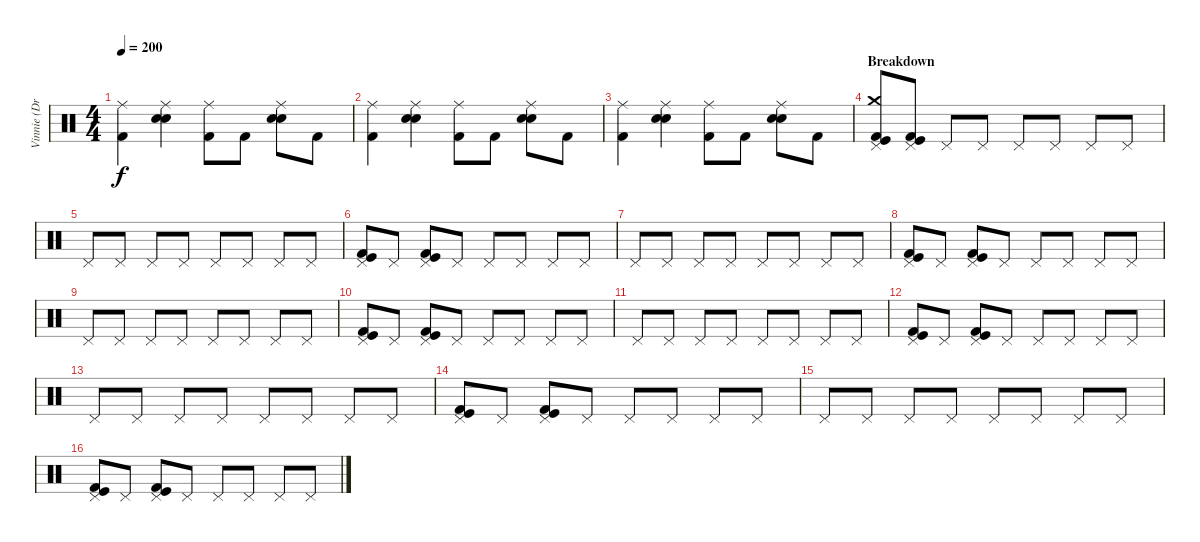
\track ("Vinnie (Drums)" "Vinnie (Dr") {instrument percussion}
\staff {score}
\articulation defaults
\ts (4 4)
\tempo 200
\clef neutral
\ks c
("Kick (hit) 2" "Ride (middle)").4{dy f} ("Snare (hit) 2" "Electric Snare (hit)" "Ride (middle)").4 ("Kick (hit) 2" "Ride (middle)").8 "Kick (hit) 2".8 ("Snare (hit) 2" "Electric Snare (hit)" "Ride (middle)").8 "Kick (hit) 2".8 |
("Kick (hit) 2" "Ride (middle)").4 ("Snare (hit) 2" "Electric Snare (hit)" "Ride (middle)").4 ("Kick (hit) 2" "Ride (middle)").8 "Kick (hit) 2".8 ("Snare (hit) 2" "Electric Snare (hit)" "Ride (middle)").8 "Kick (hit) 2".8 |
("Kick (hit) 2" "Ride (middle)").4 ("Snare (hit) 2" "Electric Snare (hit)" "Ride (middle)").4 ("Kick (hit) 2" "Ride (middle)").8 "Kick (hit) 2".8 ("Snare (hit) 2" "Electric Snare (hit)" "Ride (middle)").8 "Kick (hit) 2".8 |
\section ("" "Breakdown")
("Pedal Hi-Hat (hit)" "Kick (hit) 2" "Crash medium (hit)" "Kick (hit)").8 ("Pedal Hi-Hat (hit)" "Kick (hit) 2" "Kick (hit)").8 "Pedal Hi-Hat (hit)".8 "Pedal Hi-Hat (hit)".8 "Pedal Hi-Hat (hit)".8 "Pedal Hi-Hat (hit)".8 "Pedal Hi-Hat (hit)".8 "Pedal Hi-Hat (hit)".8 |
"Pedal Hi-Hat (hit)".8 "Pedal Hi-Hat (hit)".8 "Pedal Hi-Hat (hit)".8 "Pedal Hi-Hat (hit)".8 "Pedal Hi-Hat (hit)".8 "Pedal Hi-Hat (hit)".8 "Pedal Hi-Hat (hit)".8 "Pedal Hi-Hat (hit)".8 |
("Pedal Hi-Hat (hit)" "Kick (hit) 2" "Kick (hit)").8 "Pedal Hi-Hat (hit)".8 ("Pedal Hi-Hat (hit)" "Kick (hit) 2" "Kick (hit)").8 "Pedal Hi-Hat (hit)".8 "Pedal Hi-Hat (hit)".8 "Pedal Hi-Hat (hit)".8 "Pedal Hi-Hat (hit)".8 "Pedal Hi-Hat (hit)".8 |
"Pedal Hi-Hat (hit)".8 "Pedal Hi-Hat (hit)".8 "Pedal Hi-Hat (hit)".8 "Pedal Hi-Hat (hit)".8 "Pedal Hi-Hat (hit)".8 "Pedal Hi-Hat (hit)".8 "Pedal Hi-Hat (hit)".8 "Pedal Hi-Hat (hit)".8 |
("Pedal Hi-Hat (hit)" "Kick (hit) 2" "Kick (hit)").8 "Pedal Hi-Hat (hit)".8 ("Pedal Hi-Hat (hit)" "Kick (hit) 2" "Kick (hit)").8 "Pedal Hi-Hat (hit)".8 "Pedal Hi-Hat (hit)".8 "Pedal Hi-Hat (hit)".8 "Pedal Hi-Hat (hit)".8 "Pedal Hi-Hat (hit)".8 |
"Pedal Hi-Hat (hit)".8 "Pedal Hi-Hat (hit)".8 "Pedal Hi-Hat (hit)".8 "Pedal Hi-Hat (hit)".8 "Pedal Hi-Hat (hit)".8 "Pedal Hi-Hat (hit)".8 "Pedal Hi-Hat (hit)".8 "Pedal Hi-Hat (hit)".8 |
("Pedal Hi-Hat (hit)" "Kick (hit) 2" "Kick (hit)").8 "Pedal Hi-Hat (hit)".8 ("Pedal Hi-Hat (hit)" "Kick (hit) 2" "Kick (hit)").8 "Pedal Hi-Hat (hit)".8 "Pedal Hi-Hat (hit)".8 "Pedal Hi-Hat (hit)".8 "Pedal Hi-Hat (hit)".8 "Pedal Hi-Hat (hit)".8 |
"Pedal Hi-Hat (hit)".8 "Pedal Hi-Hat (hit)".8 "Pedal Hi-Hat (hit)".8 "Pedal Hi-Hat (hit)".8 "Pedal Hi-Hat (hit)".8 "Pedal Hi-Hat (hit)".8 "Pedal Hi-Hat (hit)".8 "Pedal Hi-Hat (hit)".8 |
("Pedal Hi-Hat (hit)" "Kick (hit) 2" "Kick (hit)").8 "Pedal Hi-Hat (hit)".8 ("Pedal Hi-Hat (hit)" "Kick (hit) 2" "Kick (hit)").8 "Pedal Hi-Hat (hit)".8 "Pedal Hi-Hat (hit)".8 "Pedal Hi-Hat (hit)".8 "Pedal Hi-Hat (hit)".8 "Pedal Hi-Hat (hit)".8 |
"Pedal Hi-Hat (hit)".8 "Pedal Hi-Hat (hit)".8 "Pedal Hi-Hat (hit)".8 "Pedal Hi-Hat (hit)".8 "Pedal Hi-Hat (hit)".8 "Pedal Hi-Hat (hit)".8 "Pedal Hi-Hat (hit)".8 "Pedal Hi-Hat (hit)".8 |
("Pedal Hi-Hat (hit)" "Kick (hit) 2" "Kick (hit)").8 "Pedal Hi-Hat (hit)".8 ("Pedal Hi-Hat (hit)" "Kick (hit) 2" "Kick (hit)").8 "Pedal Hi-Hat (hit)".8 "Pedal Hi-Hat (hit)".8 "Pedal Hi-Hat (hit)".8 "Pedal Hi-Hat (hit)".8 "Pedal Hi-Hat (hit)".8 |
"Pedal Hi-Hat (hit)".8 "Pedal Hi-Hat (hit)".8 "Pedal Hi-Hat (hit)".8 "Pedal Hi-Hat (hit)".8 "Pedal Hi-Hat (hit)".8 "Pedal Hi-Hat (hit)".8 "Pedal Hi-Hat (hit)".8 "Pedal Hi-Hat (hit)".8 |
("Pedal Hi-Hat (hit)" "Kick (hit) 2" "Kick (hit)").8 "Pedal Hi-Hat (hit)".8 ("Pedal Hi-Hat (hit)" "Kick (hit) 2" "Kick (hit)").8 "Pedal Hi-Hat (hit)".8 "Pedal Hi-Hat (hit)".8 "Pedal Hi-Hat (hit)".8 "Pedal Hi-Hat (hit)".8 "Pedal Hi-Hat (hit)".8
